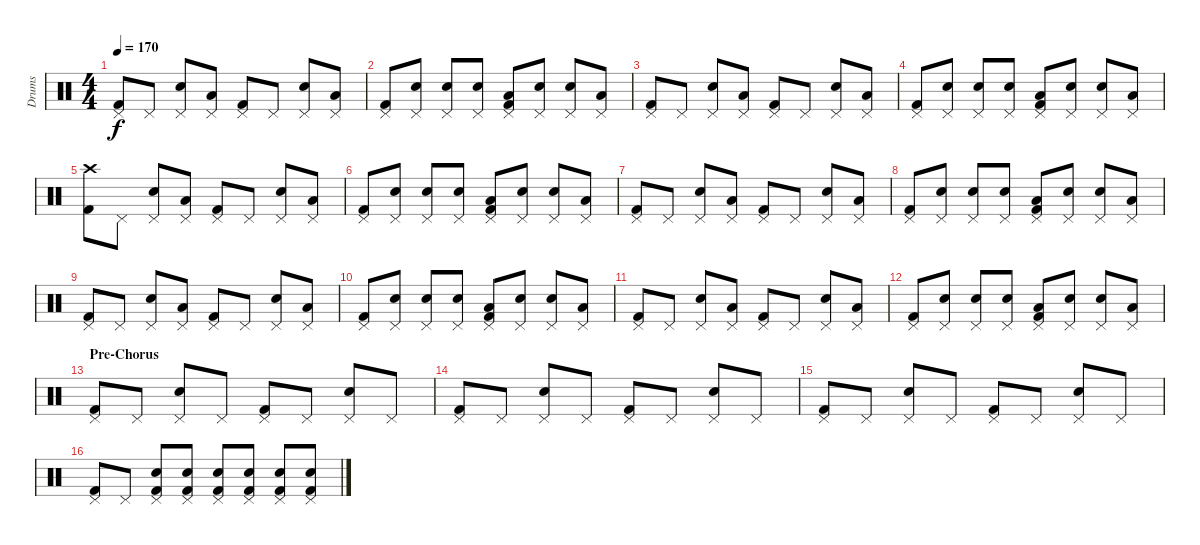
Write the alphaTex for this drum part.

\track ("Drums" "Drums") {instrument percussion}
\staff {score}
\articulation defaults
\ts (4 4)
\tempo 170
\clef neutral
\ks c
("Pedal Hi-Hat (hit)" "Kick (hit) 2").8{dy f} "Pedal Hi-Hat (hit)".8 ("Pedal Hi-Hat (hit)" "Electric Snare (hit)").8 ("Pedal Hi-Hat (hit)" "Low Tom (hit)").8 ("Pedal Hi-Hat (hit)" "Kick (hit) 2").8 "Pedal Hi-Hat (hit)".8 ("Pedal Hi-Hat (hit)" "Electric Snare (hit)").8 ("Pedal Hi-Hat (hit)" "Low Tom (hit)").8 |
("Pedal Hi-Hat (hit)" "Kick (hit) 2").8 ("Pedal Hi-Hat (hit)" "Electric Snare (hit)").8 ("Pedal Hi-Hat (hit)" "Electric Snare (hit)").8 ("Pedal Hi-Hat (hit)" "Electric Snare (hit)").8 ("Pedal Hi-Hat (hit)" "Low Tom (hit)" "Kick (hit) 2").8 ("Pedal Hi-Hat (hit)" "Electric Snare (hit)").8 ("Pedal Hi-Hat (hit)" "Electric Snare (hit)").8 ("Pedal Hi-Hat (hit)" "Low Tom (hit)").8 |
("Pedal Hi-Hat (hit)" "Kick (hit) 2").8 "Pedal Hi-Hat (hit)".8 ("Pedal Hi-Hat (hit)" "Electric Snare (hit)").8 ("Pedal Hi-Hat (hit)" "Low Tom (hit)").8 ("Pedal Hi-Hat (hit)" "Kick (hit) 2").8 "Pedal Hi-Hat (hit)".8 ("Pedal Hi-Hat (hit)" "Electric Snare (hit)").8 ("Pedal Hi-Hat (hit)" "Low Tom (hit)").8 |
("Pedal Hi-Hat (hit)" "Kick (hit) 2").8 ("Pedal Hi-Hat (hit)" "Electric Snare (hit)").8 ("Pedal Hi-Hat (hit)" "Electric Snare (hit)").8 ("Pedal Hi-Hat (hit)" "Electric Snare (hit)").8 ("Pedal Hi-Hat (hit)" "Low Tom (hit)" "Kick (hit) 2").8 ("Pedal Hi-Hat (hit)" "Electric Snare (hit)").8 ("Pedal Hi-Hat (hit)" "Electric Snare (hit)").8 ("Pedal Hi-Hat (hit)" "Low Tom (hit)").8 |
("Crash high (hit)" "Kick (hit) 2").8 "Pedal Hi-Hat (hit)".8 ("Pedal Hi-Hat (hit)" "Electric Snare (hit)").8 ("Pedal Hi-Hat (hit)" "Low Tom (hit)").8 ("Pedal Hi-Hat (hit)" "Kick (hit) 2").8 "Pedal Hi-Hat (hit)".8 ("Pedal Hi-Hat (hit)" "Electric Snare (hit)").8 ("Pedal Hi-Hat (hit)" "Low Tom (hit)").8 |
("Pedal Hi-Hat (hit)" "Kick (hit) 2").8 ("Pedal Hi-Hat (hit)" "Electric Snare (hit)").8 ("Pedal Hi-Hat (hit)" "Electric Snare (hit)").8 ("Pedal Hi-Hat (hit)" "Electric Snare (hit)").8 ("Pedal Hi-Hat (hit)" "Low Tom (hit)" "Kick (hit) 2").8 ("Pedal Hi-Hat (hit)" "Electric Snare (hit)").8 ("Pedal Hi-Hat (hit)" "Electric Snare (hit)").8 ("Pedal Hi-Hat (hit)" "Low Tom (hit)").8 |
("Pedal Hi-Hat (hit)" "Kick (hit) 2").8 "Pedal Hi-Hat (hit)".8 ("Pedal Hi-Hat (hit)" "Electric Snare (hit)").8 ("Pedal Hi-Hat (hit)" "Low Tom (hit)").8 ("Pedal Hi-Hat (hit)" "Kick (hit) 2").8 "Pedal Hi-Hat (hit)".8 ("Pedal Hi-Hat (hit)" "Electric Snare (hit)").8 ("Pedal Hi-Hat (hit)" "Low Tom (hit)").8 |
("Pedal Hi-Hat (hit)" "Kick (hit) 2").8 ("Pedal Hi-Hat (hit)" "Electric Snare (hit)").8 ("Pedal Hi-Hat (hit)" "Electric Snare (hit)").8 ("Pedal Hi-Hat (hit)" "Electric Snare (hit)").8 ("Pedal Hi-Hat (hit)" "Low Tom (hit)" "Kick (hit) 2").8 ("Pedal Hi-Hat (hit)" "Electric Snare (hit)").8 ("Pedal Hi-Hat (hit)" "Electric Snare (hit)").8 ("Pedal Hi-Hat (hit)" "Low Tom (hit)").8 |
("Pedal Hi-Hat (hit)" "Kick (hit) 2").8 "Pedal Hi-Hat (hit)".8 ("Pedal Hi-Hat (hit)" "Electric Snare (hit)").8 ("Pedal Hi-Hat (hit)" "Low Tom (hit)").8 ("Pedal Hi-Hat (hit)" "Kick (hit) 2").8 "Pedal Hi-Hat (hit)".8 ("Pedal Hi-Hat (hit)" "Electric Snare (hit)").8 ("Pedal Hi-Hat (hit)" "Low Tom (hit)").8 |
("Pedal Hi-Hat (hit)" "Kick (hit) 2").8 ("Pedal Hi-Hat (hit)" "Electric Snare (hit)").8 ("Pedal Hi-Hat (hit)" "Electric Snare (hit)").8 ("Pedal Hi-Hat (hit)" "Electric Snare (hit)").8 ("Pedal Hi-Hat (hit)" "Low Tom (hit)" "Kick (hit) 2").8 ("Pedal Hi-Hat (hit)" "Electric Snare (hit)").8 ("Pedal Hi-Hat (hit)" "Electric Snare (hit)").8 ("Pedal Hi-Hat (hit)" "Low Tom (hit)").8 |
("Pedal Hi-Hat (hit)" "Kick (hit) 2").8 "Pedal Hi-Hat (hit)".8 ("Pedal Hi-Hat (hit)" "Electric Snare (hit)").8 ("Pedal Hi-Hat (hit)" "Low Tom (hit)").8 ("Pedal Hi-Hat (hit)" "Kick (hit) 2").8 "Pedal Hi-Hat (hit)".8 ("Pedal Hi-Hat (hit)" "Electric Snare (hit)").8 ("Pedal Hi-Hat (hit)" "Low Tom (hit)").8 |
("Pedal Hi-Hat (hit)" "Kick (hit) 2").8 ("Pedal Hi-Hat (hit)" "Electric Snare (hit)").8 ("Pedal Hi-Hat (hit)" "Electric Snare (hit)").8 ("Pedal Hi-Hat (hit)" "Electric Snare (hit)").8 ("Pedal Hi-Hat (hit)" "Low Tom (hit)" "Kick (hit) 2").8 ("Pedal Hi-Hat (hit)" "Electric Snare (hit)").8 ("Pedal Hi-Hat (hit)" "Electric Snare (hit)").8 ("Pedal Hi-Hat (hit)" "Low Tom (hit)").8 |
\section ("" "Pre-Chorus")
("Pedal Hi-Hat (hit)" "Kick (hit) 2").8 "Pedal Hi-Hat (hit)".8 ("Pedal Hi-Hat (hit)" "Electric Snare (hit)").8 "Pedal Hi-Hat (hit)".8 ("Pedal Hi-Hat (hit)" "Kick (hit) 2").8 "Pedal Hi-Hat (hit)".8 ("Pedal Hi-Hat (hit)" "Electric Snare (hit)").8 "Pedal Hi-Hat (hit)".8 |
("Pedal Hi-Hat (hit)" "Kick (hit) 2").8 "Pedal Hi-Hat (hit)".8 ("Pedal Hi-Hat (hit)" "Electric Snare (hit)").8 "Pedal Hi-Hat (hit)".8 ("Pedal Hi-Hat (hit)" "Kick (hit) 2").8 "Pedal Hi-Hat (hit)".8 ("Pedal Hi-Hat (hit)" "Electric Snare (hit)").8 "Pedal Hi-Hat (hit)".8 |
("Pedal Hi-Hat (hit)" "Kick (hit) 2").8 "Pedal Hi-Hat (hit)".8 ("Pedal Hi-Hat (hit)" "Electric Snare (hit)").8 "Pedal Hi-Hat (hit)".8 ("Pedal Hi-Hat (hit)" "Kick (hit) 2").8 "Pedal Hi-Hat (hit)".8 ("Pedal Hi-Hat (hit)" "Electric Snare (hit)").8 "Pedal Hi-Hat (hit)".8 |
("Pedal Hi-Hat (hit)" "Kick (hit) 2").8 "Pedal Hi-Hat (hit)".8 ("Pedal Hi-Hat (hit)" "Electric Snare (hit)" "Kick (hit) 2").8 ("Pedal Hi-Hat (hit)" "Electric Snare (hit)" "Kick (hit) 2").8 ("Pedal Hi-Hat (hit)" "Electric Snare (hit)" "Kick (hit) 2").8 ("Pedal Hi-Hat (hit)" "Electric Snare (hit)" "Kick (hit) 2").8 ("Pedal Hi-Hat (hit)" "Electric Snare (hit)" "Kick (hit) 2").8 ("Pedal Hi-Hat (hit)" "Electric Snare (hit)" "Kick (hit) 2").8
